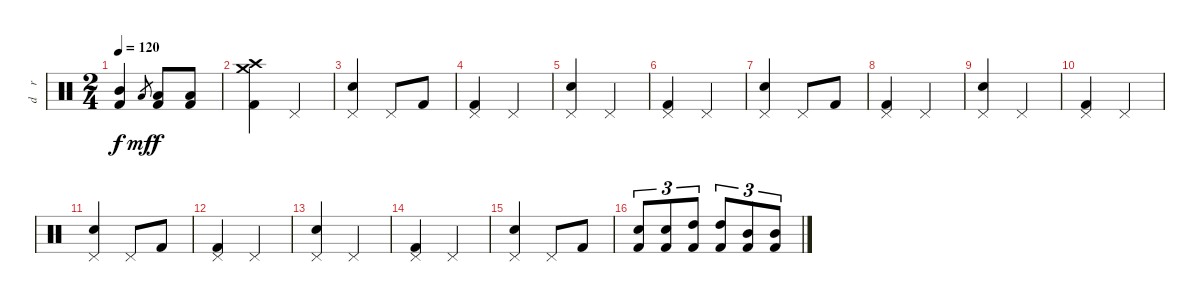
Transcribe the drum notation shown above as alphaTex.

\track ("d    r     u    m    s" "d    r    ") {instrument percussion}
\staff {score}
\articulation defaults
\ts (2 4)
\tempo 120
\clef neutral
\ks c
("Mid Tom (hit)" "Kick (hit) 2").4{dy f} "Low Tom (hit)".8{gr dy mf} ("Low Tom (hit)" "Kick (hit) 2").8{dy f} ("Low Tom (hit)" "Kick (hit) 2").8 |
("Crash high (hit)" "Crash medium (hit)" "Kick (hit) 2").4 "Pedal Hi-Hat (hit)".4 |
("Pedal Hi-Hat (hit)" "Snare (hit) 2").4 "Pedal Hi-Hat (hit)".8 "Kick (hit) 2".8 |
("Pedal Hi-Hat (hit)" "Kick (hit) 2").4 "Pedal Hi-Hat (hit)".4 |
("Pedal Hi-Hat (hit)" "Snare (hit) 2").4 "Pedal Hi-Hat (hit)".4 |
("Pedal Hi-Hat (hit)" "Kick (hit) 2").4 "Pedal Hi-Hat (hit)".4 |
("Pedal Hi-Hat (hit)" "Snare (hit) 2").4 "Pedal Hi-Hat (hit)".8 "Kick (hit) 2".8 |
("Pedal Hi-Hat (hit)" "Kick (hit) 2").4 "Pedal Hi-Hat (hit)".4 |
("Pedal Hi-Hat (hit)" "Snare (hit) 2").4 "Pedal Hi-Hat (hit)".4 |
("Pedal Hi-Hat (hit)" "Kick (hit) 2").4 "Pedal Hi-Hat (hit)".4 |
("Pedal Hi-Hat (hit)" "Snare (hit) 2").4 "Pedal Hi-Hat (hit)".8 "Kick (hit) 2".8 |
("Pedal Hi-Hat (hit)" "Kick (hit) 2").4 "Pedal Hi-Hat (hit)".4 |
("Pedal Hi-Hat (hit)" "Snare (hit) 2").4 "Pedal Hi-Hat (hit)".4 |
("Pedal Hi-Hat (hit)" "Kick (hit) 2").4 "Pedal Hi-Hat (hit)".4 |
("Pedal Hi-Hat (hit)" "Snare (hit) 2").4 "Pedal Hi-Hat (hit)".8 "Kick (hit) 2".8 |
("Snare (hit) 2" "Kick (hit) 2").8{tu (3 2)} ("Snare (hit) 2" "Kick (hit) 2").8{tu (3 2)} ("High Tom (hit)" "Kick (hit) 2").8{tu (3 2)} ("High Tom (hit)" "Kick (hit) 2").8{tu (3 2)} ("Mid Tom (hit)" "Kick (hit) 2").8{tu (3 2)} ("Mid Tom (hit)" "Kick (hit) 2").8{tu (3 2)}
